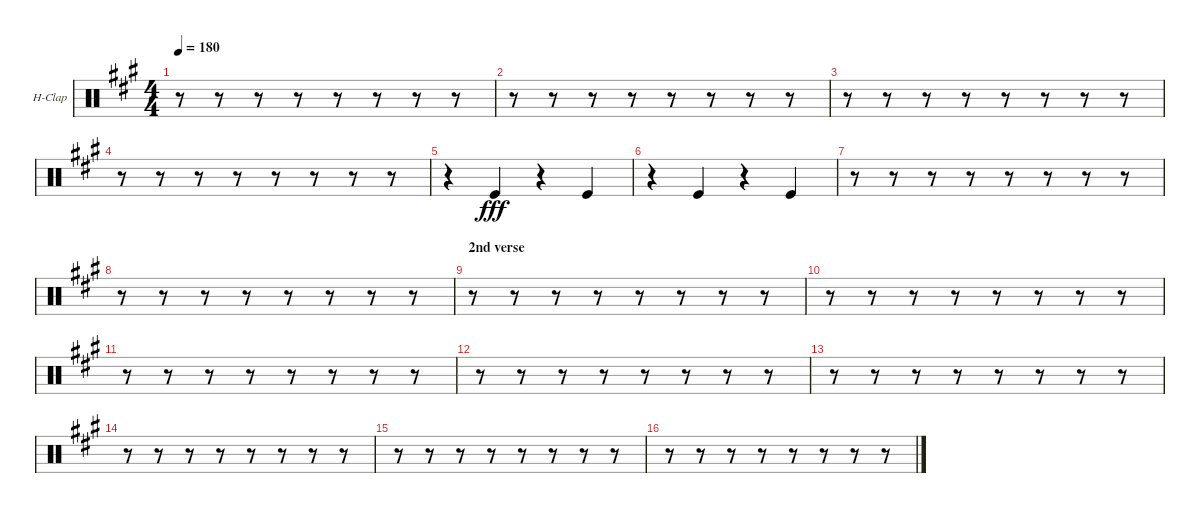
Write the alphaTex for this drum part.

\bracketExtendMode groupsimilarinstruments
\firstSystemTrackNameOrientation horizontal
\otherSystemsTrackNameOrientation horizontal
\track ("Hand Clap" "H-Clap") {instrument percussion}
\staff {score}
\articulation defaults
\ts (4 4)
\tempo 180
\clef neutral
\ks a
r.8{dy f} r.8 r.8 r.8 r.8 r.8 r.8 r.8 |
r.8 r.8 r.8 r.8 r.8 r.8 r.8 r.8 |
r.8 r.8 r.8 r.8 r.8 r.8 r.8 r.8 |
r.8 r.8 r.8 r.8 r.8 r.8 r.8 r.8 |
r.4 "Kick (hit)".4{dy fff} r.4 "Kick (hit)".4 |
r.4 "Kick (hit)".4 r.4 "Kick (hit)".4 |
r.8 r.8 r.8 r.8 r.8 r.8 r.8 r.8 |
r.8 r.8 r.8 r.8 r.8 r.8 r.8 r.8 |
\section ("" "2nd verse")
r.8 r.8 r.8 r.8 r.8 r.8 r.8 r.8 |
r.8 r.8 r.8 r.8 r.8 r.8 r.8 r.8 |
r.8 r.8 r.8 r.8 r.8 r.8 r.8 r.8 |
r.8 r.8 r.8 r.8 r.8 r.8 r.8 r.8 |
r.8 r.8 r.8 r.8 r.8 r.8 r.8 r.8 |
r.8 r.8 r.8 r.8 r.8 r.8 r.8 r.8 |
r.8 r.8 r.8 r.8 r.8 r.8 r.8 r.8 |
r.8 r.8 r.8 r.8 r.8 r.8 r.8 r.8
